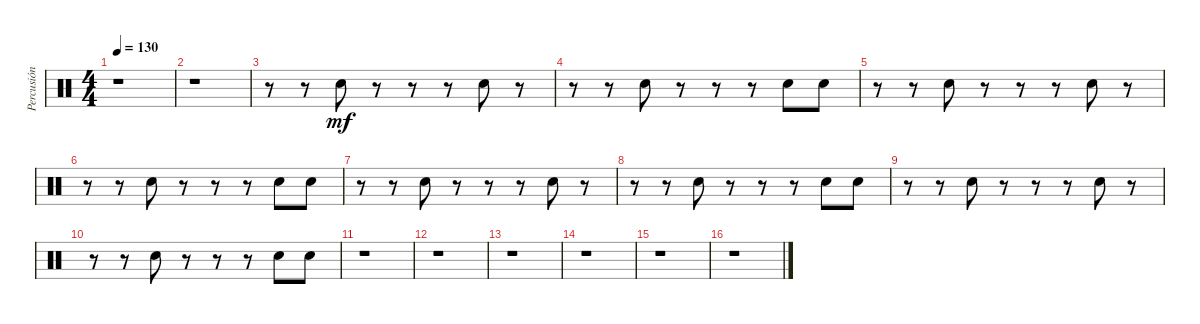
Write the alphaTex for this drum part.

\track ("Percusión extra" "Percusión ") {instrument percussion}
\staff {score}
\articulation defaults
\ts (4 4)
\tempo 130
\clef neutral
\ks c
r.1{dy mf} |
r.1 |
r.8 r.8 "Hand Clap (hit)".8 r.8 r.8 r.8 "Hand Clap (hit)".8 r.8 |
r.8 r.8 "Hand Clap (hit)".8 r.8 r.8 r.8 "Hand Clap (hit)".8 "Hand Clap (hit)".8 |
r.8 r.8 "Hand Clap (hit)".8 r.8 r.8 r.8 "Hand Clap (hit)".8 r.8 |
r.8 r.8 "Hand Clap (hit)".8 r.8 r.8 r.8 "Hand Clap (hit)".8 "Hand Clap (hit)".8 |
r.8 r.8 "Hand Clap (hit)".8 r.8 r.8 r.8 "Hand Clap (hit)".8 r.8 |
r.8 r.8 "Hand Clap (hit)".8 r.8 r.8 r.8 "Hand Clap (hit)".8 "Hand Clap (hit)".8 |
r.8 r.8 "Hand Clap (hit)".8 r.8 r.8 r.8 "Hand Clap (hit)".8 r.8 |
r.8 r.8 "Hand Clap (hit)".8 r.8 r.8 r.8 "Hand Clap (hit)".8 "Hand Clap (hit)".8 |
r.1 |
r.1 |
r.1 |
r.1 |
r.1 |
r.1
